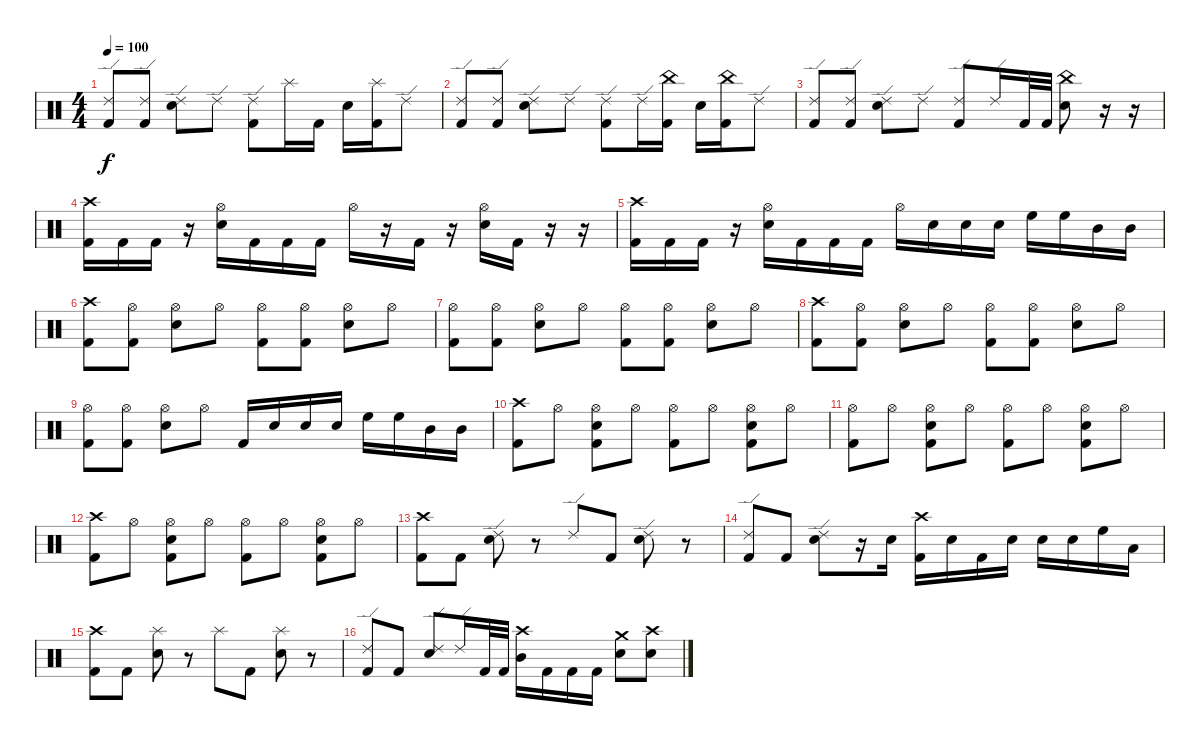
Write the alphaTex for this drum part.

\track "" {instrument percussion}
\staff {score}
\articulation defaults
\ts (4 4)
\tempo 100
\clef neutral
\ks c
("Ride (edge) 2" "Kick (hit) 2").8{dy f} ("Ride (edge) 2" "Kick (hit) 2").8 ("Ride (edge) 2" "Electric Snare (hit)").8 "Ride (edge) 2".8 ("Ride (edge) 2" "Kick (hit) 2").8 "Splash (hit)".16 "Kick (hit) 2".16 "Electric Snare (hit)".16 ("Splash (hit)" "Kick (hit) 2").16 "Ride (edge) 2".8 |
("Ride (edge) 2" "Kick (hit) 2").8 ("Ride (edge) 2" "Kick (hit) 2").8 ("Ride (edge) 2" "Electric Snare (hit)").8 "Ride (edge) 2".8 ("Ride (edge) 2" "Kick (hit) 2").8 "Ride (edge) 2".16 ("China (hit)" "Kick (hit) 2").16 "Electric Snare (hit)".16 ("China (hit)" "Kick (hit) 2").16 "Ride (edge) 2".8 |
("Ride (edge) 2" "Kick (hit) 2").8 ("Ride (edge) 2" "Kick (hit) 2").8 ("Ride (edge) 2" "Electric Snare (hit)").8 "Ride (edge) 2".8 ("Ride (edge) 2" "Kick (hit) 2").8 "Ride (edge) 2".16 "Kick (hit) 2".32 "Kick (hit) 2".32 ("China (hit)" "Electric Snare (hit)").8 r.16 r.16 |
("Crash high (hit)" "Kick (hit) 2").16 "Kick (hit) 2".16 "Kick (hit) 2".16 r.16 ("Hi-Hat (open)" "Electric Snare (hit)").16 "Kick (hit) 2".16 "Kick (hit) 2".16 "Kick (hit) 2".16 "Hi-Hat (open)".16 r.16 "Kick (hit) 2".16 r.16 ("Hi-Hat (open)" "Electric Snare (hit)").16 "Kick (hit) 2".16 r.16 r.16 |
("Crash high (hit)" "Kick (hit) 2").16 "Kick (hit) 2".16 "Kick (hit) 2".16 r.16 ("Hi-Hat (open)" "Electric Snare (hit)").16 "Kick (hit) 2".16 "Kick (hit) 2".16 "Kick (hit) 2".16 "Hi-Hat (open)".16 "Electric Snare (hit)".16 "Electric Snare (hit)".16 "Electric Snare (hit)".16 "High Floor Tom (hit)".16{balance 16} "High Floor Tom (hit)".16{balance 16} "Mid Tom (hit)".16{balance 12} "Mid Tom (hit)".16{balance 12} |
("Crash high (hit)" "Kick (hit) 2").8{balance 8} ("Hi-Hat (open)" "Kick (hit) 2").8 ("Hi-Hat (open)" "Electric Snare (hit)").8 "Hi-Hat (open)".8 ("Hi-Hat (open)" "Kick (hit) 2").8 ("Hi-Hat (open)" "Kick (hit) 2").8 ("Hi-Hat (open)" "Electric Snare (hit)").8 "Hi-Hat (open)".8 |
("Hi-Hat (open)" "Kick (hit) 2").8 ("Hi-Hat (open)" "Kick (hit) 2").8 ("Hi-Hat (open)" "Electric Snare (hit)").8 "Hi-Hat (open)".8 ("Hi-Hat (open)" "Kick (hit) 2").8 ("Hi-Hat (open)" "Kick (hit) 2").8 ("Hi-Hat (open)" "Electric Snare (hit)").8 "Hi-Hat (open)".8 |
("Crash high (hit)" "Kick (hit) 2").8 ("Hi-Hat (open)" "Kick (hit) 2").8 ("Hi-Hat (open)" "Electric Snare (hit)").8 "Hi-Hat (open)".8 ("Hi-Hat (open)" "Kick (hit) 2").8 ("Hi-Hat (open)" "Kick (hit) 2").8 ("Hi-Hat (open)" "Electric Snare (hit)").8 "Hi-Hat (open)".8 |
("Hi-Hat (open)" "Kick (hit) 2").8 ("Hi-Hat (open)" "Kick (hit) 2").8 ("Hi-Hat (open)" "Electric Snare (hit)").8 "Hi-Hat (open)".8 "Kick (hit) 2".16 "Electric Snare (hit)".16 "Electric Snare (hit)".16 "Electric Snare (hit)".16 "High Floor Tom (hit)".16 "High Floor Tom (hit)".16 "Mid Tom (hit)".16 "Mid Tom (hit)".16 |
("Crash high (hit)" "Kick (hit) 2").8 "Hi-Hat (open)".8 ("Hi-Hat (open)" "Electric Snare (hit)" "Kick (hit) 2").8 "Hi-Hat (open)".8 ("Hi-Hat (open)" "Kick (hit) 2").8 "Hi-Hat (open)".8 ("Hi-Hat (open)" "Electric Snare (hit)" "Kick (hit) 2").8 "Hi-Hat (open)".8 |
("Hi-Hat (open)" "Kick (hit) 2").8 "Hi-Hat (open)".8 ("Hi-Hat (open)" "Electric Snare (hit)" "Kick (hit) 2").8 "Hi-Hat (open)".8 ("Hi-Hat (open)" "Kick (hit) 2").8 "Hi-Hat (open)".8 ("Hi-Hat (open)" "Electric Snare (hit)" "Kick (hit) 2").8 "Hi-Hat (open)".8 |
("Crash high (hit)" "Kick (hit) 2").8 "Hi-Hat (open)".8 ("Hi-Hat (open)" "Electric Snare (hit)" "Kick (hit) 2").8 "Hi-Hat (open)".8 ("Hi-Hat (open)" "Kick (hit) 2").8 "Hi-Hat (open)".8 ("Hi-Hat (open)" "Electric Snare (hit)" "Kick (hit) 2").8 "Hi-Hat (open)".8 |
("Crash high (hit)" "Kick (hit) 2").8 "Kick (hit) 2".8 ("Ride (edge) 2" "Electric Snare (hit)").8 r.8 "Ride (edge) 2".8 "Kick (hit) 2".8 ("Ride (edge) 2" "Electric Snare (hit)").8 r.8 |
("Ride (edge) 2" "Kick (hit) 2").8 "Kick (hit) 2".8 ("Ride (edge) 2" "Electric Snare (hit)").8 r.16 "Electric Snare (hit)".16 ("Crash high (hit)" "Kick (hit) 2").16 "Electric Snare (hit)".16 "Kick (hit) 2".16 "Electric Snare (hit)".16 "Electric Snare (hit)".16 "Electric Snare (hit)".16 "High Floor Tom (hit)".16{balance 8} "Low Tom (hit)".16{balance 6} |
("Crash high (hit)" "Kick (hit) 2").8{balance 8} "Kick (hit) 2".8 ("Splash (hit)" "Electric Snare (hit)").8 r.8 "Splash (hit)".8 "Kick (hit) 2".8 ("Splash (hit)" "Electric Snare (hit)").8 r.8 |
("Ride (edge) 2" "Kick (hit) 2").8{balance 8} "Kick (hit) 2".8 ("Ride (edge) 2" "Electric Snare (hit)").8 "Ride (edge) 2".16 "Kick (hit) 2".32 "Kick (hit) 2".32 ("Crash high (hit)" "Mid Tom (hit)").16 "Kick (hit) 2".16 "Kick (hit) 2".16 "Kick (hit) 2".16 ("Crash medium (hit)" "Electric Snare (hit)").8 ("Crash high (hit)" "Electric Snare (hit)").8
